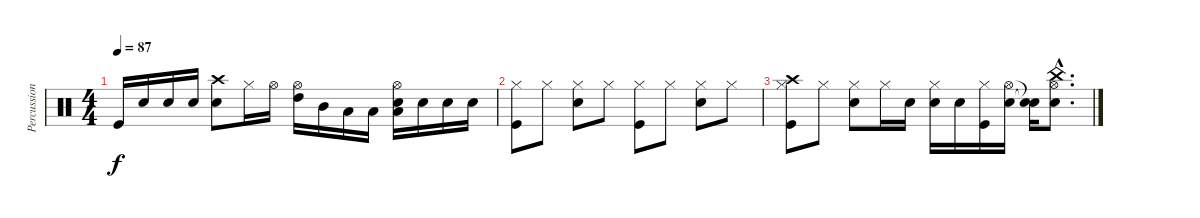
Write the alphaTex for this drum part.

\track ("Percussion" "Percussion") {instrument percussion}
\staff {score}
\articulation defaults
\ts (4 4)
\tempo 87
\clef neutral
\ks c "Kick (hit)".16{dy f} "Snare (hit) 2".16 "Snare (hit) 2".16 "Snare (hit) 2".16
("Crash high (hit)" "Snare (hit) 2").8 "Hi-Hat (closed)".16 "Hi-Hat (open)".16 ("High Tom (hit)" "Hi-Hat (open)").16 "Mid Tom (hit)".16 "Low Tom (hit)".16 "Low Tom (hit)".16 ("Low Floor Tom (hit)" "Snare (hit) 2" "Hi-Hat (open)").16 "Snare (hit) 2".16 "Snare (hit) 2".16 "Snare (hit) 2".16 |
("Hi-Hat (closed)" "Kick (hit)").8 "Hi-Hat (closed)".8 ("Hi-Hat (closed)" "Snare (hit) 2").8 "Hi-Hat (closed)".8 ("Hi-Hat (closed)" "Kick (hit)").8 "Hi-Hat (closed)".8 ("Hi-Hat (closed)" "Snare (hit) 2").8 "Hi-Hat (closed)".8 |
("Crash high (hit)" "Hi-Hat (closed)" "Kick (hit)").8 "Hi-Hat (closed)".8 ("Hi-Hat (closed)" "Snare (hit) 2").8 "Hi-Hat (closed)".16 "Snare (hit) 2".16 ("Hi-Hat (closed)" "Snare (hit) 2").16 "Snare (hit) 2".16 ("Hi-Hat (closed)" "Kick (hit)").16 ("Hi-Hat (open)" "Snare (hit) 2").16 ("Snare (hit)"{t} "Snare (hit)"{t}).16 ("China (hit)"{hac} "Hi-Hat (open)"{hac} "Snare (hit) 2"{hac}).8{d}
